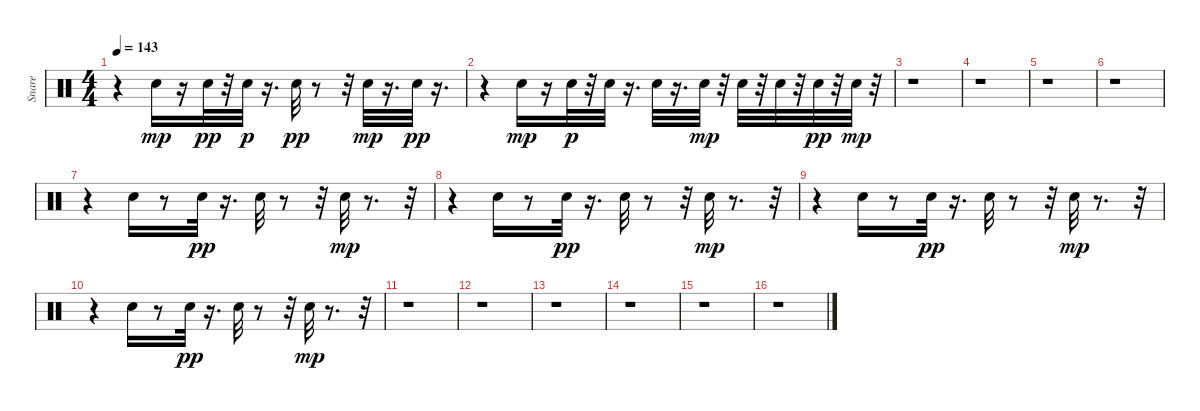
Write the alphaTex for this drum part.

\track ("Snare    " "Snare    ") {instrument percussion}
\staff {score}
\articulation defaults
\ts (4 4)
\tempo 143
\clef neutral
\ks c
r.4{dy pp} "Electric Snare (hit)".16{dy mp} r.16 "Electric Snare (hit)".32{dy pp} r.32 "Snare (hit) 2".32{dy p} r.16{d} "Electric Snare (hit)".32{dy pp} r.8 r.32 "Electric Snare (hit)".32{dy mp} r.16{d} "Electric Snare (hit)".32{dy pp} r.16{d} |
r.4 "Electric Snare (hit)".16{dy mp} r.16 "Electric Snare (hit)".32{dy p} r.32 "Snare (hit) 2".32 r.16{d} "Snare (hit) 2".32 r.16{d} "Snare (hit) 2".32{dy mp} r.32 "Electric Snare (hit)".32 r.32 "Snare (hit) 2".32 r.32 "Snare (hit) 2".32{dy pp} r.32 "Snare (hit) 2".32{dy mp} r.32 |
r.1 |
r.1 |
r.1 |
r.1 |
r.4 "Electric Snare (hit)".16 r.8 "Electric Snare (hit)".32{dy pp} r.16{d} "Electric Snare (hit)".32 r.8 r.32 "Electric Snare (hit)".32{dy mp} r.8{d} r.32 |
r.4 "Electric Snare (hit)".16 r.8 "Electric Snare (hit)".32{dy pp} r.16{d} "Electric Snare (hit)".32 r.8 r.32 "Electric Snare (hit)".32{dy mp} r.8{d} r.32 |
r.4 "Electric Snare (hit)".16 r.8 "Electric Snare (hit)".32{dy pp} r.16{d} "Electric Snare (hit)".32 r.8 r.32 "Electric Snare (hit)".32{dy mp} r.8{d} r.32 |
r.4 "Electric Snare (hit)".16 r.8 "Electric Snare (hit)".32{dy pp} r.16{d} "Electric Snare (hit)".32 r.8 r.32 "Electric Snare (hit)".32{dy mp} r.8{d} r.32 |
r.1 |
r.1 |
r.1 |
r.1 |
r.1 |
r.1
